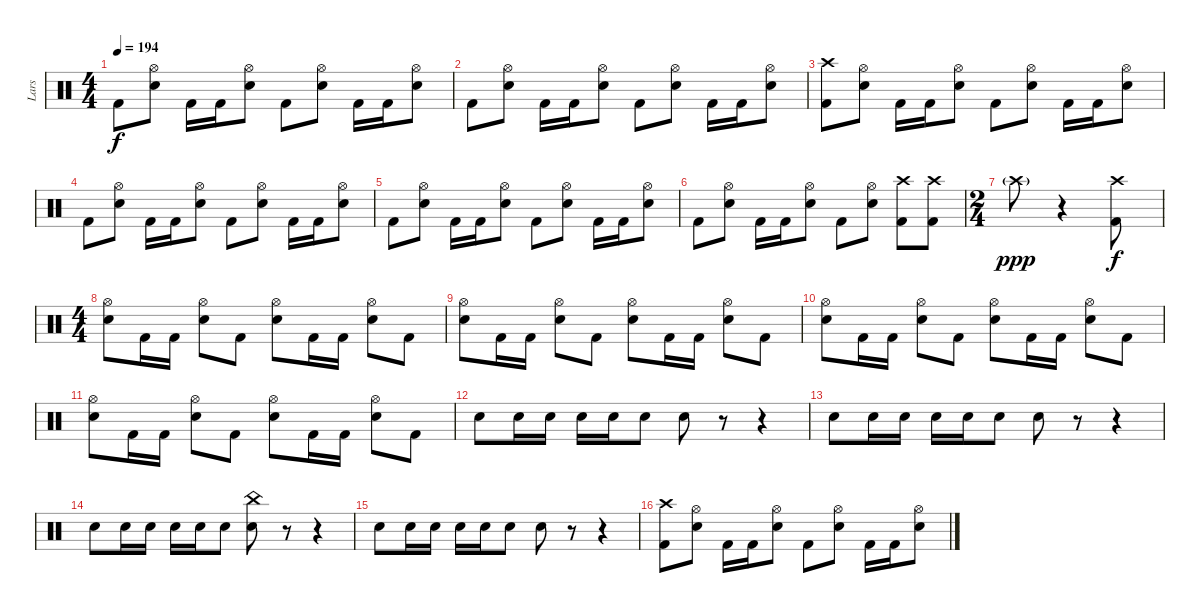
\track ("Lars" "Lars") {instrument percussion}
\staff {score}
\articulation defaults
\ts (4 4)
\tempo 194
\clef neutral
\ks c "Kick (hit) 2".8{dy f}
("Electric Snare (hit)" "Hi-Hat (open)").8 "Kick (hit) 2".16 "Kick (hit) 2".16 ("Electric Snare (hit)" "Hi-Hat (open)").8 "Kick (hit) 2".8 ("Electric Snare (hit)" "Hi-Hat (open)").8 "Kick (hit) 2".16 "Kick (hit) 2".16 ("Electric Snare (hit)" "Hi-Hat (open)").8 |
"Kick (hit) 2".8 ("Electric Snare (hit)" "Hi-Hat (open)").8 "Kick (hit) 2".16 "Kick (hit) 2".16 ("Electric Snare (hit)" "Hi-Hat (open)").8 "Kick (hit) 2".8 ("Electric Snare (hit)" "Hi-Hat (open)").8 "Kick (hit) 2".16 "Kick (hit) 2".16 ("Electric Snare (hit)" "Hi-Hat (open)").8 |
("Kick (hit) 2" "Crash high (hit)").8 ("Electric Snare (hit)" "Hi-Hat (open)").8 "Kick (hit) 2".16 "Kick (hit) 2".16 ("Electric Snare (hit)" "Hi-Hat (open)").8 "Kick (hit) 2".8 ("Electric Snare (hit)" "Hi-Hat (open)").8 "Kick (hit) 2".16 "Kick (hit) 2".16 ("Electric Snare (hit)" "Hi-Hat (open)").8 |
"Kick (hit) 2".8 ("Electric Snare (hit)" "Hi-Hat (open)").8 "Kick (hit) 2".16 "Kick (hit) 2".16 ("Electric Snare (hit)" "Hi-Hat (open)").8 "Kick (hit) 2".8 ("Electric Snare (hit)" "Hi-Hat (open)").8 "Kick (hit) 2".16 "Kick (hit) 2".16 ("Electric Snare (hit)" "Hi-Hat (open)").8 |
"Kick (hit) 2".8 ("Electric Snare (hit)" "Hi-Hat (open)").8 "Kick (hit) 2".16 "Kick (hit) 2".16 ("Electric Snare (hit)" "Hi-Hat (open)").8 "Kick (hit) 2".8 ("Electric Snare (hit)" "Hi-Hat (open)").8 "Kick (hit) 2".16 "Kick (hit) 2".16 ("Electric Snare (hit)" "Hi-Hat (open)").8 |
"Kick (hit) 2".8 ("Electric Snare (hit)" "Hi-Hat (open)").8 "Kick (hit) 2".16 "Kick (hit) 2".16 ("Electric Snare (hit)" "Hi-Hat (open)").8 "Kick (hit) 2".8 ("Electric Snare (hit)" "Hi-Hat (open)").8 ("Kick (hit) 2" "Crash high (hit)").8 ("Kick (hit) 2" "Crash high (hit)").8 |
\ts (2 4)
"Crash high (hit)"{g}.8{dy ppp} r.4 ("Kick (hit) 2" "Crash high (hit)").8{dy f} |
\ts (4 4)
("Electric Snare (hit)" "Hi-Hat (open)").8 "Kick (hit) 2".16 "Kick (hit) 2".16 ("Electric Snare (hit)" "Hi-Hat (open)").8 "Kick (hit) 2".8 ("Electric Snare (hit)" "Hi-Hat (open)").8 "Kick (hit) 2".16 "Kick (hit) 2".16 ("Electric Snare (hit)" "Hi-Hat (open)").8 "Kick (hit) 2".8 |
("Electric Snare (hit)" "Hi-Hat (open)").8 "Kick (hit) 2".16 "Kick (hit) 2".16 ("Electric Snare (hit)" "Hi-Hat (open)").8 "Kick (hit) 2".8 ("Electric Snare (hit)" "Hi-Hat (open)").8 "Kick (hit) 2".16 "Kick (hit) 2".16 ("Electric Snare (hit)" "Hi-Hat (open)").8 "Kick (hit) 2".8 |
("Electric Snare (hit)" "Hi-Hat (open)").8 "Kick (hit) 2".16 "Kick (hit) 2".16 ("Electric Snare (hit)" "Hi-Hat (open)").8 "Kick (hit) 2".8 ("Electric Snare (hit)" "Hi-Hat (open)").8 "Kick (hit) 2".16 "Kick (hit) 2".16 ("Electric Snare (hit)" "Hi-Hat (open)").8 "Kick (hit) 2".8 |
("Electric Snare (hit)" "Hi-Hat (open)").8 "Kick (hit) 2".16 "Kick (hit) 2".16 ("Electric Snare (hit)" "Hi-Hat (open)").8 "Kick (hit) 2".8 ("Electric Snare (hit)" "Hi-Hat (open)").8 "Kick (hit) 2".16 "Kick (hit) 2".16 ("Electric Snare (hit)" "Hi-Hat (open)").8 "Kick (hit) 2".8 |
"Electric Snare (hit)".8 "Electric Snare (hit)".16 "Electric Snare (hit)".16 "Electric Snare (hit)".16 "Electric Snare (hit)".16 "Electric Snare (hit)".8 "Electric Snare (hit)".8 r.8 r.4 |
"Electric Snare (hit)".8 "Electric Snare (hit)".16 "Electric Snare (hit)".16 "Electric Snare (hit)".16 "Electric Snare (hit)".16 "Electric Snare (hit)".8 "Electric Snare (hit)".8 r.8 r.4 |
"Electric Snare (hit)".8 "Electric Snare (hit)".16 "Electric Snare (hit)".16 "Electric Snare (hit)".16 "Electric Snare (hit)".16 "Electric Snare (hit)".8 ("Electric Snare (hit)" "China (hit)").8 r.8 r.4 |
"Electric Snare (hit)".8 "Electric Snare (hit)".16 "Electric Snare (hit)".16 "Electric Snare (hit)".16 "Electric Snare (hit)".16 "Electric Snare (hit)".8 "Electric Snare (hit)".8 r.8 r.4 |
\section ("" "")
("Kick (hit) 2" "Crash high (hit)").8 ("Electric Snare (hit)" "Hi-Hat (open)").8 "Kick (hit) 2".16 "Kick (hit) 2".16 ("Electric Snare (hit)" "Hi-Hat (open)").8 "Kick (hit) 2".8 ("Electric Snare (hit)" "Hi-Hat (open)").8 "Kick (hit) 2".16 "Kick (hit) 2".16 ("Electric Snare (hit)" "Hi-Hat (open)").8
